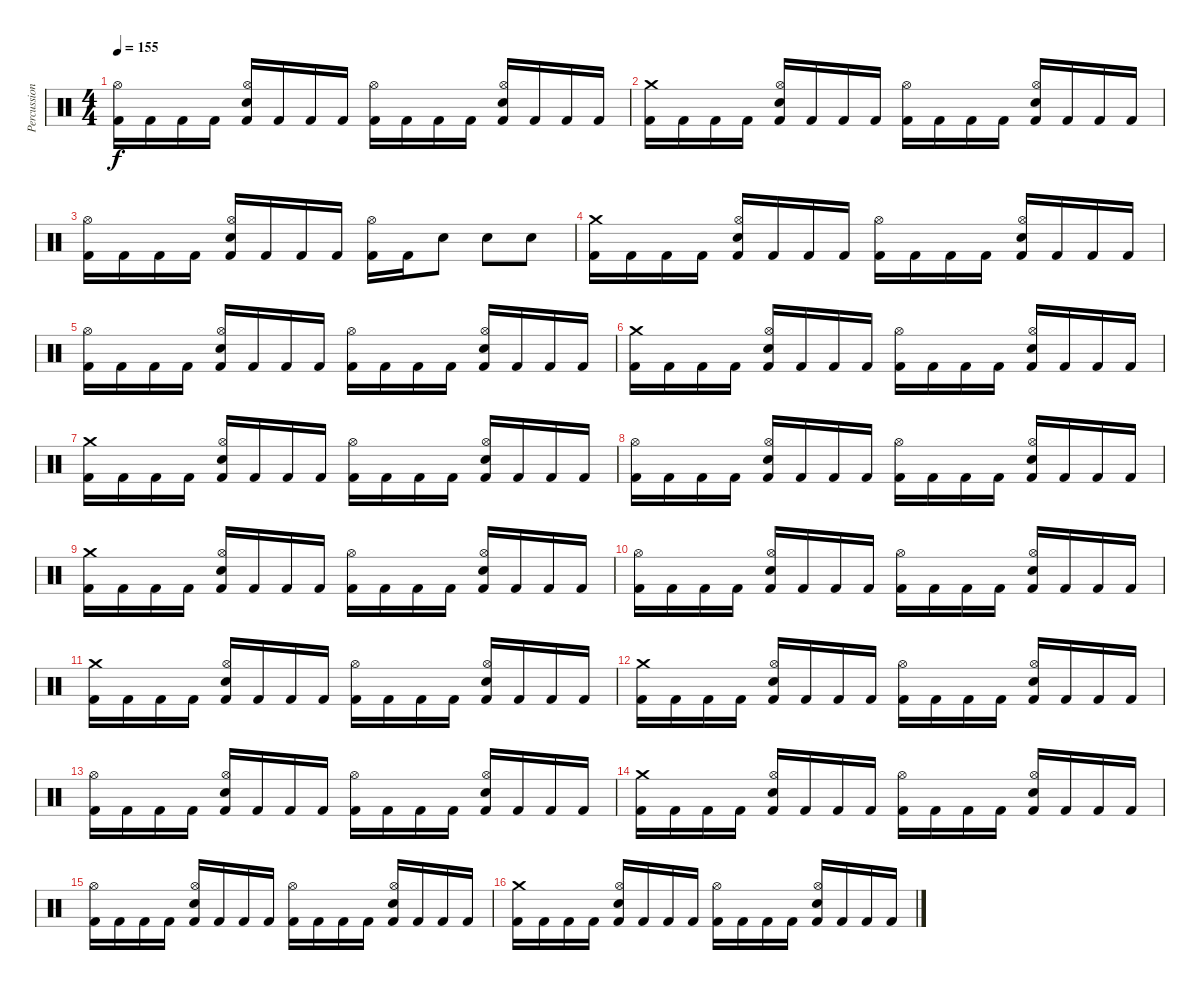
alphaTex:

\track ("Percussion" "Percussion") {instrument percussion}
\staff {score}
\articulation defaults
\ts (4 4)
\tempo 155
\clef neutral
\ks c
("Kick (hit) 2" "Hi-Hat (open)").16{dy f} "Kick (hit) 2".16 "Kick (hit) 2".16 "Kick (hit) 2".16 ("Kick (hit) 2" "Snare (hit) 2" "Hi-Hat (open)").16 "Kick (hit) 2".16 "Kick (hit) 2".16 "Kick (hit) 2".16 ("Kick (hit) 2" "Hi-Hat (open)").16 "Kick (hit) 2".16 "Kick (hit) 2".16 "Kick (hit) 2".16 ("Kick (hit) 2" "Snare (hit) 2" "Hi-Hat (open)").16 "Kick (hit) 2".16 "Kick (hit) 2".16 "Kick (hit) 2".16 |
("Kick (hit) 2" "Crash medium (hit)").16 "Kick (hit) 2".16 "Kick (hit) 2".16 "Kick (hit) 2".16 ("Kick (hit) 2" "Snare (hit) 2" "Hi-Hat (open)").16 "Kick (hit) 2".16 "Kick (hit) 2".16 "Kick (hit) 2".16 ("Kick (hit) 2" "Hi-Hat (open)").16 "Kick (hit) 2".16 "Kick (hit) 2".16 "Kick (hit) 2".16 ("Kick (hit) 2" "Snare (hit) 2" "Hi-Hat (open)").16 "Kick (hit) 2".16 "Kick (hit) 2".16 "Kick (hit) 2".16 |
("Kick (hit) 2" "Hi-Hat (open)").16 "Kick (hit) 2".16 "Kick (hit) 2".16 "Kick (hit) 2".16 ("Kick (hit) 2" "Snare (hit) 2" "Hi-Hat (open)").16 "Kick (hit) 2".16 "Kick (hit) 2".16 "Kick (hit) 2".16 ("Kick (hit) 2" "Hi-Hat (open)").16 "Kick (hit) 2".16 "Snare (hit) 2".8 "Snare (hit) 2".8 "Snare (hit) 2".8 |
("Kick (hit) 2" "Crash medium (hit)").16 "Kick (hit) 2".16 "Kick (hit) 2".16 "Kick (hit) 2".16 ("Kick (hit) 2" "Snare (hit) 2" "Hi-Hat (open)").16 "Kick (hit) 2".16 "Kick (hit) 2".16 "Kick (hit) 2".16 ("Kick (hit) 2" "Hi-Hat (open)").16 "Kick (hit) 2".16 "Kick (hit) 2".16 "Kick (hit) 2".16 ("Kick (hit) 2" "Snare (hit) 2" "Hi-Hat (open)").16 "Kick (hit) 2".16 "Kick (hit) 2".16 "Kick (hit) 2".16 |
("Kick (hit) 2" "Hi-Hat (open)").16 "Kick (hit) 2".16 "Kick (hit) 2".16 "Kick (hit) 2".16 ("Kick (hit) 2" "Snare (hit) 2" "Hi-Hat (open)").16 "Kick (hit) 2".16 "Kick (hit) 2".16 "Kick (hit) 2".16 ("Kick (hit) 2" "Hi-Hat (open)").16 "Kick (hit) 2".16 "Kick (hit) 2".16 "Kick (hit) 2".16 ("Kick (hit) 2" "Snare (hit) 2" "Hi-Hat (open)").16 "Kick (hit) 2".16 "Kick (hit) 2".16 "Kick (hit) 2".16 |
("Kick (hit) 2" "Crash medium (hit)").16 "Kick (hit) 2".16 "Kick (hit) 2".16 "Kick (hit) 2".16 ("Kick (hit) 2" "Snare (hit) 2" "Hi-Hat (open)").16 "Kick (hit) 2".16 "Kick (hit) 2".16 "Kick (hit) 2".16 ("Kick (hit) 2" "Hi-Hat (open)").16 "Kick (hit) 2".16 "Kick (hit) 2".16 "Kick (hit) 2".16 ("Kick (hit) 2" "Snare (hit) 2" "Hi-Hat (open)").16 "Kick (hit) 2".16 "Kick (hit) 2".16 "Kick (hit) 2".16 |
("Kick (hit) 2" "Crash medium (hit)").16 "Kick (hit) 2".16 "Kick (hit) 2".16 "Kick (hit) 2".16 ("Kick (hit) 2" "Snare (hit) 2" "Hi-Hat (open)").16 "Kick (hit) 2".16 "Kick (hit) 2".16 "Kick (hit) 2".16 ("Kick (hit) 2" "Hi-Hat (open)").16 "Kick (hit) 2".16 "Kick (hit) 2".16 "Kick (hit) 2".16 ("Kick (hit) 2" "Snare (hit) 2" "Hi-Hat (open)").16 "Kick (hit) 2".16 "Kick (hit) 2".16 "Kick (hit) 2".16 |
("Kick (hit) 2" "Hi-Hat (open)").16 "Kick (hit) 2".16 "Kick (hit) 2".16 "Kick (hit) 2".16 ("Kick (hit) 2" "Snare (hit) 2" "Hi-Hat (open)").16 "Kick (hit) 2".16 "Kick (hit) 2".16 "Kick (hit) 2".16 ("Kick (hit) 2" "Hi-Hat (open)").16 "Kick (hit) 2".16 "Kick (hit) 2".16 "Kick (hit) 2".16 ("Kick (hit) 2" "Snare (hit) 2" "Hi-Hat (open)").16 "Kick (hit) 2".16 "Kick (hit) 2".16 "Kick (hit) 2".16 |
("Kick (hit) 2" "Crash medium (hit)").16 "Kick (hit) 2".16 "Kick (hit) 2".16 "Kick (hit) 2".16 ("Kick (hit) 2" "Snare (hit) 2" "Hi-Hat (open)").16 "Kick (hit) 2".16 "Kick (hit) 2".16 "Kick (hit) 2".16 ("Kick (hit) 2" "Hi-Hat (open)").16 "Kick (hit) 2".16 "Kick (hit) 2".16 "Kick (hit) 2".16 ("Kick (hit) 2" "Snare (hit) 2" "Hi-Hat (open)").16 "Kick (hit) 2".16 "Kick (hit) 2".16 "Kick (hit) 2".16 |
("Kick (hit) 2" "Hi-Hat (open)").16 "Kick (hit) 2".16 "Kick (hit) 2".16 "Kick (hit) 2".16 ("Kick (hit) 2" "Snare (hit) 2" "Hi-Hat (open)").16 "Kick (hit) 2".16 "Kick (hit) 2".16 "Kick (hit) 2".16 ("Kick (hit) 2" "Hi-Hat (open)").16 "Kick (hit) 2".16 "Kick (hit) 2".16 "Kick (hit) 2".16 ("Kick (hit) 2" "Snare (hit) 2" "Hi-Hat (open)").16 "Kick (hit) 2".16 "Kick (hit) 2".16 "Kick (hit) 2".16 |
("Kick (hit) 2" "Crash medium (hit)").16 "Kick (hit) 2".16 "Kick (hit) 2".16 "Kick (hit) 2".16 ("Kick (hit) 2" "Snare (hit) 2" "Hi-Hat (open)").16 "Kick (hit) 2".16 "Kick (hit) 2".16 "Kick (hit) 2".16 ("Kick (hit) 2" "Hi-Hat (open)").16 "Kick (hit) 2".16 "Kick (hit) 2".16 "Kick (hit) 2".16 ("Kick (hit) 2" "Snare (hit) 2" "Hi-Hat (open)").16 "Kick (hit) 2".16 "Kick (hit) 2".16 "Kick (hit) 2".16 |
("Kick (hit) 2" "Crash medium (hit)").16 "Kick (hit) 2".16 "Kick (hit) 2".16 "Kick (hit) 2".16 ("Kick (hit) 2" "Snare (hit) 2" "Hi-Hat (open)").16 "Kick (hit) 2".16 "Kick (hit) 2".16 "Kick (hit) 2".16 ("Kick (hit) 2" "Hi-Hat (open)").16 "Kick (hit) 2".16 "Kick (hit) 2".16 "Kick (hit) 2".16 ("Kick (hit) 2" "Snare (hit) 2" "Hi-Hat (open)").16 "Kick (hit) 2".16 "Kick (hit) 2".16 "Kick (hit) 2".16 |
("Kick (hit) 2" "Hi-Hat (open)").16 "Kick (hit) 2".16 "Kick (hit) 2".16 "Kick (hit) 2".16 ("Kick (hit) 2" "Snare (hit) 2" "Hi-Hat (open)").16 "Kick (hit) 2".16 "Kick (hit) 2".16 "Kick (hit) 2".16 ("Kick (hit) 2" "Hi-Hat (open)").16 "Kick (hit) 2".16 "Kick (hit) 2".16 "Kick (hit) 2".16 ("Kick (hit) 2" "Snare (hit) 2" "Hi-Hat (open)").16 "Kick (hit) 2".16 "Kick (hit) 2".16 "Kick (hit) 2".16 |
("Kick (hit) 2" "Crash medium (hit)").16 "Kick (hit) 2".16 "Kick (hit) 2".16 "Kick (hit) 2".16 ("Kick (hit) 2" "Snare (hit) 2" "Hi-Hat (open)").16 "Kick (hit) 2".16 "Kick (hit) 2".16 "Kick (hit) 2".16 ("Kick (hit) 2" "Hi-Hat (open)").16 "Kick (hit) 2".16 "Kick (hit) 2".16 "Kick (hit) 2".16 ("Kick (hit) 2" "Snare (hit) 2" "Hi-Hat (open)").16 "Kick (hit) 2".16 "Kick (hit) 2".16 "Kick (hit) 2".16 |
("Kick (hit) 2" "Hi-Hat (open)").16 "Kick (hit) 2".16 "Kick (hit) 2".16 "Kick (hit) 2".16 ("Kick (hit) 2" "Snare (hit) 2" "Hi-Hat (open)").16 "Kick (hit) 2".16 "Kick (hit) 2".16 "Kick (hit) 2".16 ("Kick (hit) 2" "Hi-Hat (open)").16 "Kick (hit) 2".16 "Kick (hit) 2".16 "Kick (hit) 2".16 ("Kick (hit) 2" "Snare (hit) 2" "Hi-Hat (open)").16 "Kick (hit) 2".16 "Kick (hit) 2".16 "Kick (hit) 2".16 |
("Kick (hit) 2" "Crash medium (hit)").16 "Kick (hit) 2".16 "Kick (hit) 2".16 "Kick (hit) 2".16 ("Kick (hit) 2" "Snare (hit) 2" "Hi-Hat (open)").16 "Kick (hit) 2".16 "Kick (hit) 2".16 "Kick (hit) 2".16 ("Kick (hit) 2" "Hi-Hat (open)").16 "Kick (hit) 2".16 "Kick (hit) 2".16 "Kick (hit) 2".16 ("Kick (hit) 2" "Snare (hit) 2" "Hi-Hat (open)").16 "Kick (hit) 2".16 "Kick (hit) 2".16 "Kick (hit) 2".16
